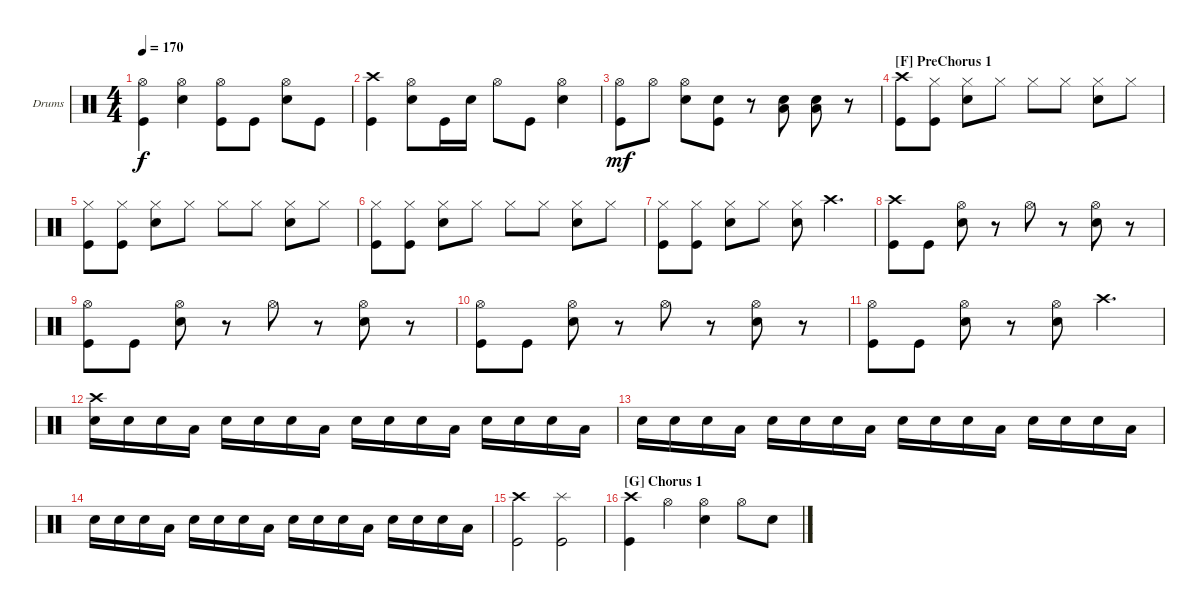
\defaultSystemsLayout 4
\bracketExtendMode groupsimilarinstruments
\firstSystemTrackNameOrientation horizontal
\otherSystemsTrackNameOrientation horizontal
\track ("Drumkit" "Drums") {instrument percussion}
\staff {score}
\articulation defaults
\ts (4 4)
\tempo 170
\clef neutral
\ks c
("Hi-Hat (open)" "Kick (hit)").4{dy f} ("Hi-Hat (open)" "Snare (hit) 2").4 ("Hi-Hat (open)" "Kick (hit)").8 "Kick (hit)".8 ("Hi-Hat (open)" "Snare (hit) 2").8 "Kick (hit)".8 |
("Crash high (hit)" "Kick (hit)").4 ("Hi-Hat (open)" "Snare (hit) 2").8 "Kick (hit)".16 "Snare (hit) 2".16 "Hi-Hat (open)".8 "Kick (hit)".8 ("Hi-Hat (open)" "Snare (hit) 2").4 |
("Kick (hit)" "Hi-Hat (open)").8{dy mf} "Hi-Hat (open)".8 ("Hi-Hat (open)" "Snare (hit) 2").8 ("Snare (hit) 2" "Kick (hit)").8 r.8 ("Snare (hit) 2" "Low Tom (hit)").8 ("Snare (hit) 2" "Low Tom (hit)").8 r.8 |
\section ("F" "PreChorus 1 ")
("Crash high (hit)" "Kick (hit)").8 ("Hi-Hat (closed)" "Kick (hit)").8 ("Hi-Hat (closed)" "Snare (hit) 2").8 "Hi-Hat (closed)".8 "Hi-Hat (closed)".8 "Hi-Hat (closed)".8 ("Hi-Hat (closed)" "Snare (hit) 2").8 "Hi-Hat (closed)".8 |
("Kick (hit)" "Hi-Hat (closed)").8 ("Hi-Hat (closed)" "Kick (hit)").8 ("Hi-Hat (closed)" "Snare (hit) 2").8 "Hi-Hat (closed)".8 "Hi-Hat (closed)".8 "Hi-Hat (closed)".8 ("Hi-Hat (closed)" "Snare (hit) 2").8 "Hi-Hat (closed)".8 |
("Kick (hit)" "Hi-Hat (closed)").8 ("Hi-Hat (closed)" "Kick (hit)").8 ("Hi-Hat (closed)" "Snare (hit) 2").8 "Hi-Hat (closed)".8 "Hi-Hat (closed)".8 "Hi-Hat (closed)".8 ("Hi-Hat (closed)" "Snare (hit) 2").8 "Hi-Hat (closed)".8 |
("Kick (hit)" "Hi-Hat (closed)").8 ("Hi-Hat (closed)" "Kick (hit)").8 ("Hi-Hat (closed)" "Snare (hit) 2").8 "Hi-Hat (closed)".8 ("Hi-Hat (closed)" "Snare (hit) 2").8 "Crash high (hit)".4{d} |
("Crash high (hit)" "Kick (hit)").8 "Kick (hit)".8 ("Hi-Hat (open)" "Snare (hit) 2").8 r.8 "Hi-Hat (open)".8 r.8 ("Hi-Hat (open)" "Snare (hit) 2").8 r.8 |
("Kick (hit)" "Hi-Hat (open)").8 "Kick (hit)".8 ("Hi-Hat (open)" "Snare (hit) 2").8 r.8 "Hi-Hat (open)".8 r.8 ("Hi-Hat (open)" "Snare (hit) 2").8 r.8 |
("Kick (hit)" "Hi-Hat (open)").8 "Kick (hit)".8 ("Hi-Hat (open)" "Snare (hit) 2").8 r.8 "Hi-Hat (open)".8 r.8 ("Hi-Hat (open)" "Snare (hit) 2").8 r.8 |
("Kick (hit)" "Hi-Hat (open)").8 "Kick (hit)".8 ("Hi-Hat (open)" "Snare (hit) 2").8 r.8 ("Hi-Hat (open)" "Snare (hit) 2").8 "Crash high (hit)".4{d} |
("Crash high (hit)" "Snare (hit) 2").16 "Snare (hit) 2".16 "Snare (hit) 2".16 "Low Tom (hit)".16 "Snare (hit) 2".16 "Snare (hit) 2".16 "Snare (hit) 2".16 "Low Tom (hit)".16 "Snare (hit) 2".16 "Snare (hit) 2".16 "Snare (hit) 2".16 "Low Tom (hit)".16 "Snare (hit) 2".16 "Snare (hit) 2".16 "Snare (hit) 2".16 "Low Tom (hit)".16 |
"Snare (hit) 2".16 "Snare (hit) 2".16 "Snare (hit) 2".16 "Low Tom (hit)".16 "Snare (hit) 2".16 "Snare (hit) 2".16 "Snare (hit) 2".16 "Low Tom (hit)".16 "Snare (hit) 2".16 "Snare (hit) 2".16 "Snare (hit) 2".16 "Low Tom (hit)".16 "Snare (hit) 2".16 "Snare (hit) 2".16 "Snare (hit) 2".16 "Low Tom (hit)".16 |
"Snare (hit) 2".16 "Snare (hit) 2".16 "Snare (hit) 2".16 "Low Tom (hit)".16 "Snare (hit) 2".16 "Snare (hit) 2".16 "Snare (hit) 2".16 "Low Tom (hit)".16 "Snare (hit) 2".16 "Snare (hit) 2".16 "Snare (hit) 2".16 "Low Tom (hit)".16 "Snare (hit) 2".16 "Snare (hit) 2".16 "Snare (hit) 2".16 "Low Tom (hit)".16 |
("Crash high (hit)" "Kick (hit)").2 ("Splash (hit)" "Kick (hit)").2 |
\section ("G" "Chorus 1")
("Crash high (hit)" "Kick (hit)").4 "Hi-Hat (open)".4 ("Snare (hit) 2" "Hi-Hat (open)").4 "Hi-Hat (open)".8 "Snare (hit) 2".8
